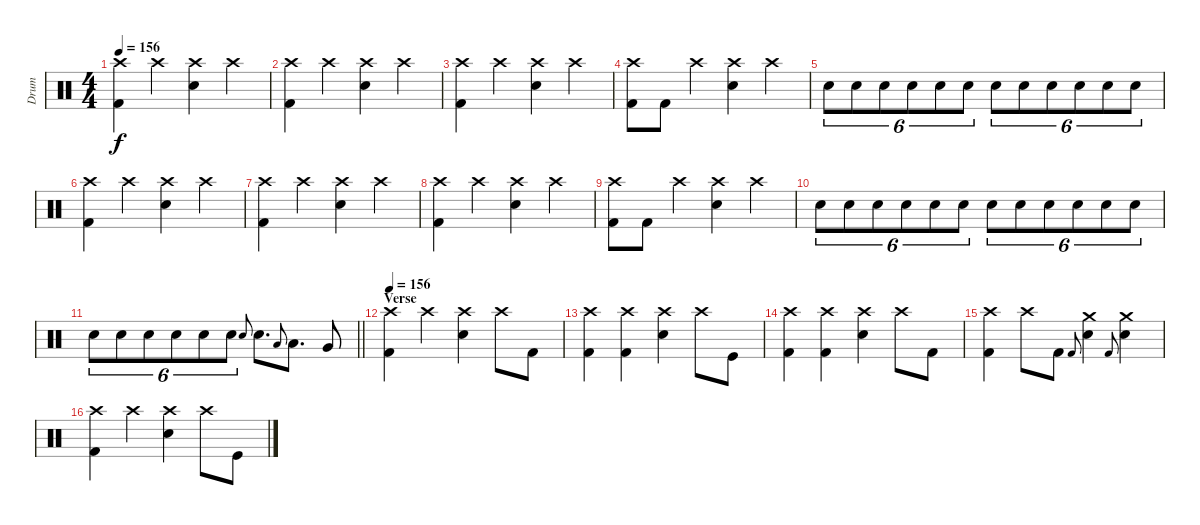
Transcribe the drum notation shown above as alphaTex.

\track ("Drum" "Drum") {instrument percussion}
\staff {score}
\articulation defaults
\ts (4 4)
\tempo 156
\clef neutral
\ks c
("Crash high (hit)" "Kick (hit) 2").4{dy f} "Crash high (hit)".4 ("Crash high (hit)" "Snare (hit) 2").4 "Crash high (hit)".4 |
("Crash high (hit)" "Kick (hit) 2").4 "Crash high (hit)".4 ("Crash high (hit)" "Snare (hit) 2").4 "Crash high (hit)".4 |
("Crash high (hit)" "Kick (hit) 2").4 "Crash high (hit)".4 ("Crash high (hit)" "Snare (hit) 2").4 "Crash high (hit)".4 |
("Crash high (hit)" "Kick (hit) 2").8 "Kick (hit) 2".8 "Crash high (hit)".4 ("Crash high (hit)" "Snare (hit) 2").4 "Crash high (hit)".4 |
"Electric Snare (hit)".8{tu (6 4)} "Electric Snare (hit)".8{tu (6 4)} "Electric Snare (hit)".8{tu (6 4)} "Electric Snare (hit)".8{tu (6 4)} "Electric Snare (hit)".8{tu (6 4)} "Electric Snare (hit)".8{tu (6 4)} "Electric Snare (hit)".8{tu (6 4)} "Electric Snare (hit)".8{tu (6 4)} "Electric Snare (hit)".8{tu (6 4)} "Electric Snare (hit)".8{tu (6 4)} "Electric Snare (hit)".8{tu (6 4)} "Electric Snare (hit)".8{tu (6 4)} |
("Crash high (hit)" "Kick (hit) 2").4 "Crash high (hit)".4 ("Crash high (hit)" "Snare (hit) 2").4 "Crash high (hit)".4 |
("Crash high (hit)" "Kick (hit) 2").4 "Crash high (hit)".4 ("Crash high (hit)" "Snare (hit) 2").4 "Crash high (hit)".4 |
("Crash high (hit)" "Kick (hit) 2").4 "Crash high (hit)".4 ("Crash high (hit)" "Snare (hit) 2").4 "Crash high (hit)".4 |
("Crash high (hit)" "Kick (hit) 2").8 "Kick (hit) 2".8 "Crash high (hit)".4 ("Crash high (hit)" "Snare (hit) 2").4 "Crash high (hit)".4 |
"Electric Snare (hit)".8{tu (6 4)} "Electric Snare (hit)".8{tu (6 4)} "Electric Snare (hit)".8{tu (6 4)} "Electric Snare (hit)".8{tu (6 4)} "Electric Snare (hit)".8{tu (6 4)} "Electric Snare (hit)".8{tu (6 4)} "Electric Snare (hit)".8{tu (6 4)} "Electric Snare (hit)".8{tu (6 4)} "Electric Snare (hit)".8{tu (6 4)} "Electric Snare (hit)".8{tu (6 4)} "Electric Snare (hit)".8{tu (6 4)} "Electric Snare (hit)".8{tu (6 4)} |
\barLineRight lightlight "Electric Snare (hit)".8{tu (6 4)} "Electric Snare (hit)".8{tu (6 4)} "Electric Snare (hit)".8{tu (6 4)} "Electric Snare (hit)".8{tu (6 4)} "Electric Snare (hit)".8{tu (6 4)} "Electric Snare (hit)".8{tu (6 4)} "Electric Snare (hit)".8{gr onbeat} "Electric Snare (hit)".8{d} "Low Tom (hit)".8{gr onbeat} "Low Tom (hit)".8{d} "Very Low Tom (hit)".8
|
\section ("" "Verse")
\tempo 156
("Crash high (hit)" "Kick (hit) 2").4 "Crash high (hit)".4 ("Crash high (hit)" "Snare (hit) 2").4 "Crash high (hit)".8 "Kick (hit) 2".8 |
("Crash high (hit)" "Kick (hit) 2").4 ("Crash high (hit)" "Kick (hit) 2").4 ("Crash high (hit)" "Snare (hit) 2").4 "Crash high (hit)".8 "Kick (hit)".8 |
("Crash high (hit)" "Kick (hit) 2").4 ("Crash high (hit)" "Kick (hit) 2").4 ("Crash high (hit)" "Snare (hit) 2").4 "Crash high (hit)".8 "Kick (hit) 2".8 |
("Crash high (hit)" "Kick (hit) 2").4 "Crash high (hit)".8 "Kick (hit) 2".8 "Kick (hit) 2".8{gr onbeat} ("Crash medium (hit)" "Snare (hit) 2").4 "Kick (hit) 2".8{gr onbeat} ("Crash medium (hit)" "Snare (hit) 2").4 |
("Crash high (hit)" "Kick (hit) 2").4 "Crash high (hit)".4 ("Crash high (hit)" "Snare (hit) 2").4 "Crash high (hit)".8 "Kick (hit)".8
